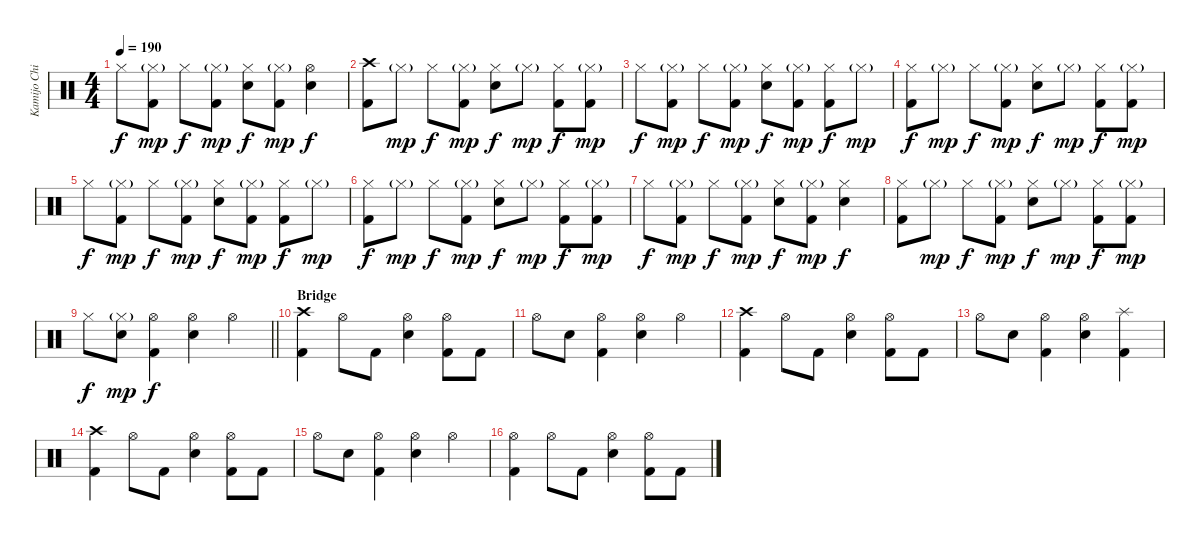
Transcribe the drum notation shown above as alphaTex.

\track ("Kamijo Chihiro" "Kamijo Chi") {instrument percussion}
\staff {score}
\articulation defaults
\ts (4 4)
\tempo 190
\clef neutral
\ks c "Hi-Hat (closed)".8{dy f}
("Hi-Hat (closed)"{g} "Kick (hit) 2").8{dy mp} "Hi-Hat (closed)".8{dy f} ("Hi-Hat (closed)"{g} "Kick (hit) 2").8{dy mp} ("Hi-Hat (closed)" "Snare (hit) 2").8{dy f} ("Hi-Hat (closed)"{g} "Kick (hit) 2").8{dy mp} ("Hi-Hat (open)" "Snare (hit) 2").4{dy f} |
("Crash high (hit)" "Kick (hit) 2").8 "Hi-Hat (closed)"{g}.8{dy mp} "Hi-Hat (closed)".8{dy f} ("Hi-Hat (closed)"{g} "Kick (hit) 2").8{dy mp} ("Hi-Hat (closed)" "Snare (hit) 2").8{dy f} "Hi-Hat (closed)"{g}.8{dy mp} ("Hi-Hat (closed)" "Kick (hit) 2").8{dy f} ("Hi-Hat (closed)"{g} "Kick (hit) 2").8{dy mp} |
"Hi-Hat (closed)".8{dy f} ("Hi-Hat (closed)"{g} "Kick (hit) 2").8{dy mp} "Hi-Hat (closed)".8{dy f} ("Hi-Hat (closed)"{g} "Kick (hit) 2").8{dy mp} ("Hi-Hat (closed)" "Snare (hit) 2").8{dy f} ("Hi-Hat (closed)"{g} "Kick (hit) 2").8{dy mp} ("Hi-Hat (closed)" "Kick (hit) 2").8{dy f} "Hi-Hat (closed)"{g}.8{dy mp} |
("Hi-Hat (closed)" "Kick (hit) 2").8{dy f} "Hi-Hat (closed)"{g}.8{dy mp} "Hi-Hat (closed)".8{dy f} ("Hi-Hat (closed)"{g} "Kick (hit) 2").8{dy mp} ("Hi-Hat (closed)" "Snare (hit) 2").8{dy f} "Hi-Hat (closed)"{g}.8{dy mp} ("Hi-Hat (closed)" "Kick (hit) 2").8{dy f} ("Hi-Hat (closed)"{g} "Kick (hit) 2").8{dy mp} |
"Hi-Hat (closed)".8{dy f} ("Hi-Hat (closed)"{g} "Kick (hit) 2").8{dy mp} "Hi-Hat (closed)".8{dy f} ("Hi-Hat (closed)"{g} "Kick (hit) 2").8{dy mp} ("Hi-Hat (closed)" "Snare (hit) 2").8{dy f} ("Hi-Hat (closed)"{g} "Kick (hit) 2").8{dy mp} ("Hi-Hat (closed)" "Kick (hit) 2").8{dy f} "Hi-Hat (closed)"{g}.8{dy mp} |
("Hi-Hat (closed)" "Kick (hit) 2").8{dy f} "Hi-Hat (closed)"{g}.8{dy mp} "Hi-Hat (closed)".8{dy f} ("Hi-Hat (closed)"{g} "Kick (hit) 2").8{dy mp} ("Hi-Hat (closed)" "Snare (hit) 2").8{dy f} "Hi-Hat (closed)"{g}.8{dy mp} ("Hi-Hat (closed)" "Kick (hit) 2").8{dy f} ("Hi-Hat (closed)"{g} "Kick (hit) 2").8{dy mp} |
"Hi-Hat (closed)".8{dy f} ("Hi-Hat (closed)"{g} "Kick (hit) 2").8{dy mp} "Hi-Hat (closed)".8{dy f} ("Hi-Hat (closed)"{g} "Kick (hit) 2").8{dy mp} ("Hi-Hat (closed)" "Snare (hit) 2").8{dy f} ("Hi-Hat (closed)"{g} "Kick (hit) 2").8{dy mp} ("Hi-Hat (closed)" "Snare (hit) 2").4{dy f} |
("Hi-Hat (closed)" "Kick (hit) 2").8 "Hi-Hat (closed)"{g}.8{dy mp} "Hi-Hat (closed)".8{dy f} ("Hi-Hat (closed)"{g} "Kick (hit) 2").8{dy mp} ("Hi-Hat (closed)" "Snare (hit) 2").8{dy f} "Hi-Hat (closed)"{g}.8{dy mp} ("Hi-Hat (closed)" "Kick (hit) 2").8{dy f} ("Hi-Hat (closed)"{g} "Kick (hit) 2").8{dy mp} |
\barLineRight lightlight "Hi-Hat (closed)".8{dy f}
("Hi-Hat (closed)"{g} "Snare (hit) 2").8{dy mp} ("Hi-Hat (open)" "Kick (hit) 2").4{dy f} ("Hi-Hat (open)" "Snare (hit) 2").4 "Hi-Hat (open)".4 |
\section ("" "Bridge")
("Crash high (hit)" "Kick (hit) 2").4 "Hi-Hat (open)".8 "Kick (hit) 2".8 ("Hi-Hat (open)" "Snare (hit) 2").4 ("Hi-Hat (open)" "Kick (hit) 2").8 "Kick (hit) 2".8 |
"Hi-Hat (open)".8 "Snare (hit) 2".8 ("Hi-Hat (open)" "Kick (hit) 2").4 ("Hi-Hat (open)" "Snare (hit) 2").4 "Hi-Hat (open)".4 |
("Crash high (hit)" "Kick (hit) 2").4 "Hi-Hat (open)".8 "Kick (hit) 2".8 ("Hi-Hat (open)" "Snare (hit) 2").4 ("Hi-Hat (open)" "Kick (hit) 2").8 "Kick (hit) 2".8 |
"Hi-Hat (open)".8 "Snare (hit) 2".8 ("Hi-Hat (open)" "Kick (hit) 2").4 ("Hi-Hat (open)" "Snare (hit) 2").4 ("Splash (hit)" "Kick (hit) 2").4 |
("Crash high (hit)" "Kick (hit) 2").4 "Hi-Hat (open)".8 "Kick (hit) 2".8 ("Hi-Hat (open)" "Snare (hit) 2").4 ("Hi-Hat (open)" "Kick (hit) 2").8 "Kick (hit) 2".8 |
"Hi-Hat (open)".8 "Snare (hit) 2".8 ("Hi-Hat (open)" "Kick (hit) 2").4 ("Hi-Hat (open)" "Snare (hit) 2").4 "Hi-Hat (open)".4 |
("Hi-Hat (open)" "Kick (hit) 2").4 "Hi-Hat (open)".8 "Kick (hit) 2".8 ("Hi-Hat (open)" "Snare (hit) 2").4 ("Hi-Hat (open)" "Kick (hit) 2").8 "Kick (hit) 2".8
